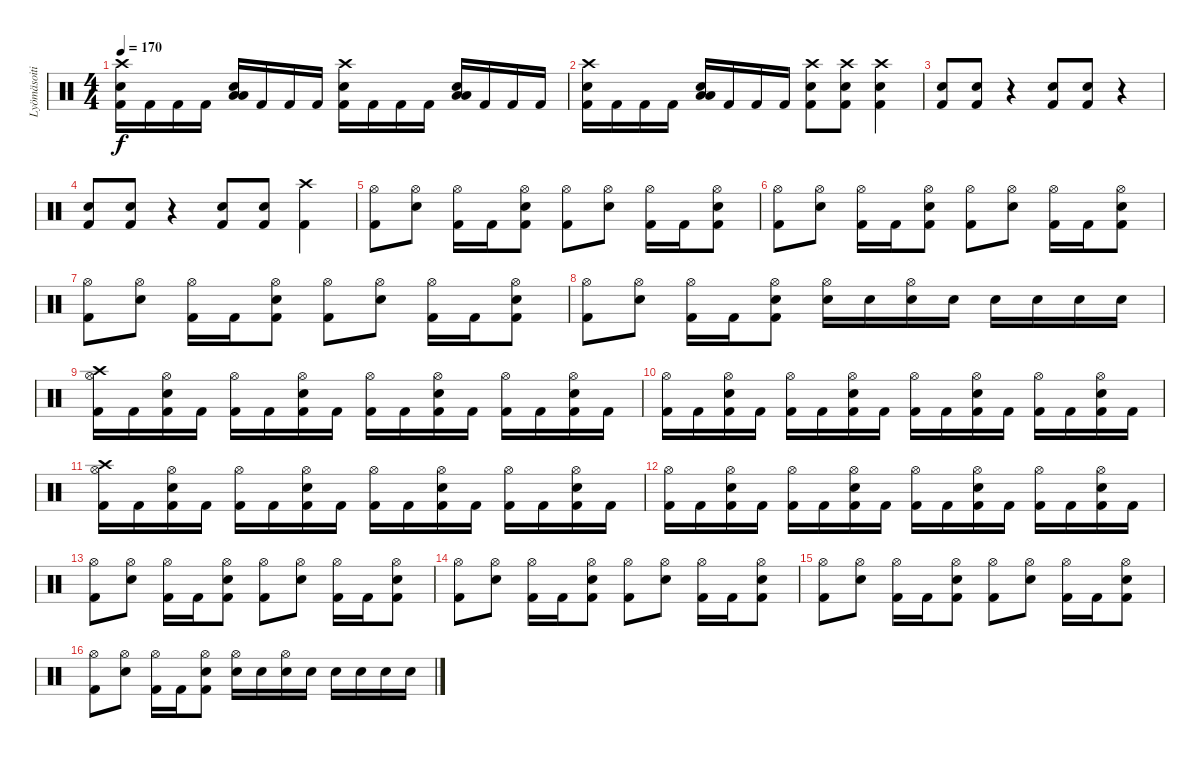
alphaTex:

\track ("Lyömäsoitin" "Lyömäsoiti") {instrument percussion}
\staff {score}
\articulation defaults
\ts (4 4)
\tempo 170
\clef neutral
\ks c
("Kick (hit) 2" "Snare (hit) 2" "Crash high (hit)").16{dy f} "Kick (hit) 2".16 "Kick (hit) 2".16 "Kick (hit) 2".16 ("Snare (hit) 2" "Low Floor Tom (hit)" "Low Floor Tom (hit)").16 "Kick (hit) 2".16 "Kick (hit) 2".16 "Kick (hit) 2".16 ("Kick (hit) 2" "Snare (hit) 2" "Crash high (hit)").16 "Kick (hit) 2".16 "Kick (hit) 2".16 "Kick (hit) 2".16 ("Snare (hit) 2" "Low Floor Tom (hit)" "Low Floor Tom (hit)").16 "Kick (hit) 2".16 "Kick (hit) 2".16 "Kick (hit) 2".16 |
("Kick (hit) 2" "Snare (hit) 2" "Crash high (hit)").16 "Kick (hit) 2".16 "Kick (hit) 2".16 "Kick (hit) 2".16 ("Snare (hit) 2" "Low Floor Tom (hit)" "Low Floor Tom (hit)").16 "Kick (hit) 2".16 "Kick (hit) 2".16 "Kick (hit) 2".16 ("Kick (hit) 2" "Snare (hit) 2" "Crash high (hit)").8 ("Kick (hit) 2" "Snare (hit) 2" "Crash high (hit)").8 ("Kick (hit) 2" "Snare (hit) 2" "Crash high (hit)").4 |
("Kick (hit) 2" "Snare (hit) 2").8 ("Kick (hit) 2" "Snare (hit) 2").8 r.4 ("Kick (hit) 2" "Snare (hit) 2").8 ("Kick (hit) 2" "Snare (hit) 2").8 r.4 |
("Kick (hit) 2" "Snare (hit) 2").8 ("Kick (hit) 2" "Snare (hit) 2").8 r.4 ("Kick (hit) 2" "Snare (hit) 2").8 ("Kick (hit) 2" "Snare (hit) 2").8 ("Kick (hit) 2" "Crash high (hit)").4 |
("Kick (hit) 2" "Hi-Hat (open)").8 ("Snare (hit) 2" "Hi-Hat (open)").8 ("Kick (hit) 2" "Hi-Hat (open)").16 "Kick (hit) 2".16 ("Kick (hit) 2" "Snare (hit) 2" "Hi-Hat (open)").8 ("Kick (hit) 2" "Hi-Hat (open)").8 ("Snare (hit) 2" "Hi-Hat (open)").8 ("Kick (hit) 2" "Hi-Hat (open)").16 "Kick (hit) 2".16 ("Kick (hit) 2" "Snare (hit) 2" "Hi-Hat (open)").8 |
("Kick (hit) 2" "Hi-Hat (open)").8 ("Snare (hit) 2" "Hi-Hat (open)").8 ("Kick (hit) 2" "Hi-Hat (open)").16 "Kick (hit) 2".16 ("Kick (hit) 2" "Snare (hit) 2" "Hi-Hat (open)").8 ("Kick (hit) 2" "Hi-Hat (open)").8 ("Snare (hit) 2" "Hi-Hat (open)").8 ("Kick (hit) 2" "Hi-Hat (open)").16 "Kick (hit) 2".16 ("Kick (hit) 2" "Snare (hit) 2" "Hi-Hat (open)").8 |
("Kick (hit) 2" "Hi-Hat (open)").8 ("Snare (hit) 2" "Hi-Hat (open)").8 ("Kick (hit) 2" "Hi-Hat (open)").16 "Kick (hit) 2".16 ("Kick (hit) 2" "Snare (hit) 2" "Hi-Hat (open)").8 ("Kick (hit) 2" "Hi-Hat (open)").8 ("Snare (hit) 2" "Hi-Hat (open)").8 ("Kick (hit) 2" "Hi-Hat (open)").16 "Kick (hit) 2".16 ("Kick (hit) 2" "Snare (hit) 2" "Hi-Hat (open)").8 |
("Kick (hit) 2" "Hi-Hat (open)").8 ("Snare (hit) 2" "Hi-Hat (open)").8 ("Kick (hit) 2" "Hi-Hat (open)").16 "Kick (hit) 2".16 ("Kick (hit) 2" "Snare (hit) 2" "Hi-Hat (open)").8 ("Snare (hit) 2" "Hi-Hat (open)").16 "Snare (hit) 2".16 ("Snare (hit) 2" "Hi-Hat (open)").16 "Snare (hit) 2".16 "Snare (hit) 2".16 "Snare (hit) 2".16 "Snare (hit) 2".16 "Snare (hit) 2".16 |
("Kick (hit) 2" "Crash high (hit)" "Hi-Hat (open)").16 "Kick (hit) 2".16 ("Kick (hit) 2" "Snare (hit) 2" "Hi-Hat (open)").16 "Kick (hit) 2".16 ("Kick (hit) 2" "Hi-Hat (open)").16 "Kick (hit) 2".16 ("Kick (hit) 2" "Snare (hit) 2" "Hi-Hat (open)").16 "Kick (hit) 2".16 ("Kick (hit) 2" "Hi-Hat (open)").16 "Kick (hit) 2".16 ("Kick (hit) 2" "Snare (hit) 2" "Hi-Hat (open)").16 "Kick (hit) 2".16 ("Kick (hit) 2" "Hi-Hat (open)").16 "Kick (hit) 2".16 ("Kick (hit) 2" "Snare (hit) 2" "Hi-Hat (open)").16 "Kick (hit) 2".16 |
("Kick (hit) 2" "Hi-Hat (open)").16 "Kick (hit) 2".16 ("Kick (hit) 2" "Snare (hit) 2" "Hi-Hat (open)").16 "Kick (hit) 2".16 ("Kick (hit) 2" "Hi-Hat (open)").16 "Kick (hit) 2".16 ("Kick (hit) 2" "Snare (hit) 2" "Hi-Hat (open)").16 "Kick (hit) 2".16 ("Kick (hit) 2" "Hi-Hat (open)").16 "Kick (hit) 2".16 ("Kick (hit) 2" "Snare (hit) 2" "Hi-Hat (open)").16 "Kick (hit) 2".16 ("Kick (hit) 2" "Hi-Hat (open)").16 "Kick (hit) 2".16 ("Kick (hit) 2" "Snare (hit) 2" "Hi-Hat (open)").16 "Kick (hit) 2".16 |
("Kick (hit) 2" "Crash high (hit)" "Hi-Hat (open)").16 "Kick (hit) 2".16 ("Kick (hit) 2" "Snare (hit) 2" "Hi-Hat (open)").16 "Kick (hit) 2".16 ("Kick (hit) 2" "Hi-Hat (open)").16 "Kick (hit) 2".16 ("Kick (hit) 2" "Snare (hit) 2" "Hi-Hat (open)").16 "Kick (hit) 2".16 ("Kick (hit) 2" "Hi-Hat (open)").16 "Kick (hit) 2".16 ("Kick (hit) 2" "Snare (hit) 2" "Hi-Hat (open)").16 "Kick (hit) 2".16 ("Kick (hit) 2" "Hi-Hat (open)").16 "Kick (hit) 2".16 ("Kick (hit) 2" "Snare (hit) 2" "Hi-Hat (open)").16 "Kick (hit) 2".16 |
("Kick (hit) 2" "Hi-Hat (open)").16 "Kick (hit) 2".16 ("Kick (hit) 2" "Snare (hit) 2" "Hi-Hat (open)").16 "Kick (hit) 2".16 ("Kick (hit) 2" "Hi-Hat (open)").16 "Kick (hit) 2".16 ("Kick (hit) 2" "Snare (hit) 2" "Hi-Hat (open)").16 "Kick (hit) 2".16 ("Kick (hit) 2" "Hi-Hat (open)").16 "Kick (hit) 2".16 ("Kick (hit) 2" "Snare (hit) 2" "Hi-Hat (open)").16 "Kick (hit) 2".16 ("Kick (hit) 2" "Hi-Hat (open)").16 "Kick (hit) 2".16 ("Kick (hit) 2" "Snare (hit) 2" "Hi-Hat (open)").16 "Kick (hit) 2".16 |
("Kick (hit) 2" "Hi-Hat (open)").8 ("Snare (hit) 2" "Hi-Hat (open)").8 ("Kick (hit) 2" "Hi-Hat (open)").16 "Kick (hit) 2".16 ("Kick (hit) 2" "Snare (hit) 2" "Hi-Hat (open)").8 ("Kick (hit) 2" "Hi-Hat (open)").8 ("Snare (hit) 2" "Hi-Hat (open)").8 ("Kick (hit) 2" "Hi-Hat (open)").16 "Kick (hit) 2".16 ("Kick (hit) 2" "Snare (hit) 2" "Hi-Hat (open)").8 |
("Kick (hit) 2" "Hi-Hat (open)").8 ("Snare (hit) 2" "Hi-Hat (open)").8 ("Kick (hit) 2" "Hi-Hat (open)").16 "Kick (hit) 2".16 ("Kick (hit) 2" "Snare (hit) 2" "Hi-Hat (open)").8 ("Kick (hit) 2" "Hi-Hat (open)").8 ("Snare (hit) 2" "Hi-Hat (open)").8 ("Kick (hit) 2" "Hi-Hat (open)").16 "Kick (hit) 2".16 ("Kick (hit) 2" "Snare (hit) 2" "Hi-Hat (open)").8 |
("Kick (hit) 2" "Hi-Hat (open)").8 ("Snare (hit) 2" "Hi-Hat (open)").8 ("Kick (hit) 2" "Hi-Hat (open)").16 "Kick (hit) 2".16 ("Kick (hit) 2" "Snare (hit) 2" "Hi-Hat (open)").8 ("Kick (hit) 2" "Hi-Hat (open)").8 ("Snare (hit) 2" "Hi-Hat (open)").8 ("Kick (hit) 2" "Hi-Hat (open)").16 "Kick (hit) 2".16 ("Kick (hit) 2" "Snare (hit) 2" "Hi-Hat (open)").8 |
("Kick (hit) 2" "Hi-Hat (open)").8 ("Snare (hit) 2" "Hi-Hat (open)").8 ("Kick (hit) 2" "Hi-Hat (open)").16 "Kick (hit) 2".16 ("Kick (hit) 2" "Snare (hit) 2" "Hi-Hat (open)").8 ("Snare (hit) 2" "Hi-Hat (open)").16 "Snare (hit) 2".16 ("Snare (hit) 2" "Hi-Hat (open)").16 "Snare (hit) 2".16 "Snare (hit) 2".16 "Snare (hit) 2".16 "Snare (hit) 2".16 "Snare (hit) 2".16
